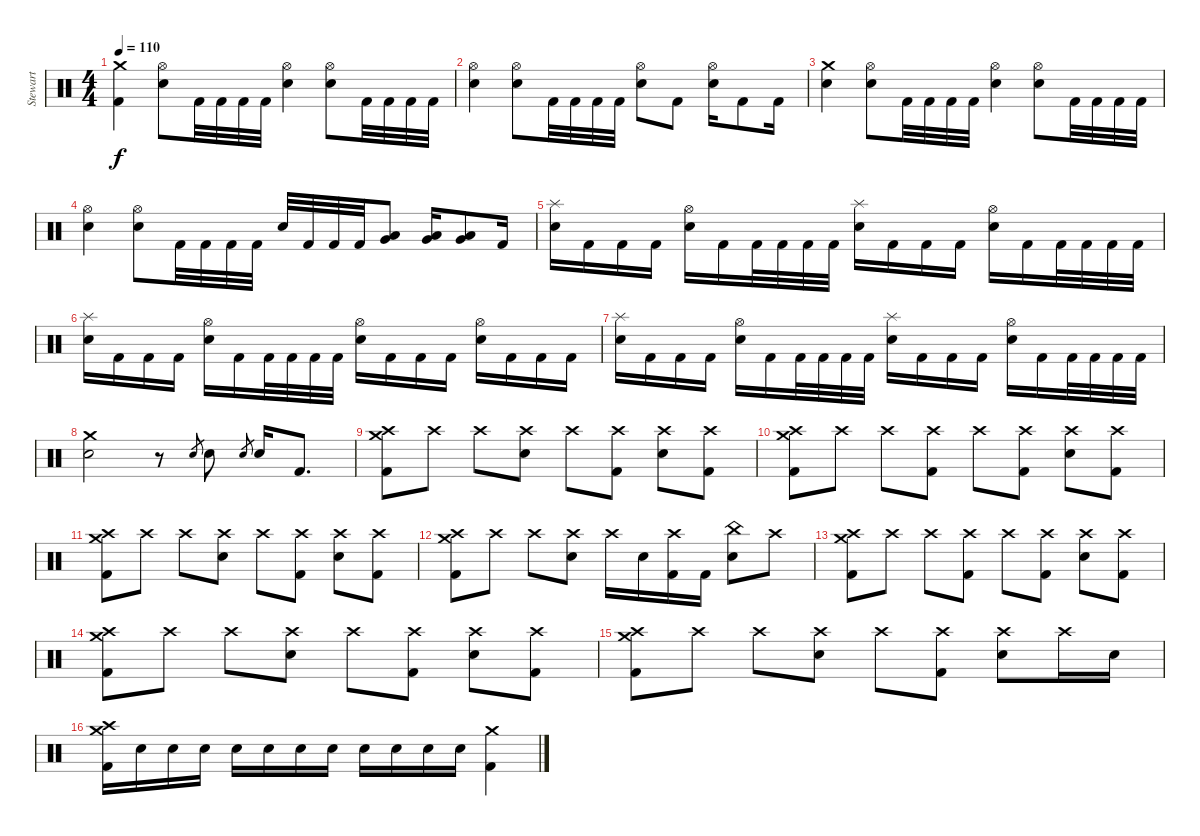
\track ("Stewart" "Stewart") {instrument percussion}
\staff {score}
\articulation defaults
\ts (4 4)
\tempo 110
\clef neutral
\ks c
("Crash medium (hit)" "Kick (hit) 2").4{dy f} ("Hi-Hat (open)" "Electric Snare (hit)").8 "Kick (hit) 2".32 "Kick (hit) 2".32 "Kick (hit) 2".32 "Kick (hit) 2".32 ("Hi-Hat (open)" "Electric Snare (hit)").4 ("Hi-Hat (open)" "Electric Snare (hit)").8 "Kick (hit) 2".32 "Kick (hit) 2".32 "Kick (hit) 2".32 "Kick (hit) 2".32 |
("Hi-Hat (open)" "Electric Snare (hit)").4 ("Hi-Hat (open)" "Electric Snare (hit)").8 "Kick (hit) 2".32 "Kick (hit) 2".32 "Kick (hit) 2".32 "Kick (hit) 2".32 ("Hi-Hat (open)" "Electric Snare (hit)").8 "Kick (hit) 2".8 ("Hi-Hat (open)" "Electric Snare (hit)").16 "Kick (hit) 2".8 "Kick (hit) 2".16 |
("Crash medium (hit)" "Electric Snare (hit)").4 ("Hi-Hat (open)" "Electric Snare (hit)").8 "Kick (hit) 2".32 "Kick (hit) 2".32 "Kick (hit) 2".32 "Kick (hit) 2".32 ("Hi-Hat (open)" "Electric Snare (hit)").4 ("Hi-Hat (open)" "Electric Snare (hit)").8 "Kick (hit) 2".32 "Kick (hit) 2".32 "Kick (hit) 2".32 "Kick (hit) 2".32 |
("Hi-Hat (open)" "Electric Snare (hit)").4 ("Hi-Hat (open)" "Electric Snare (hit)").8 "Kick (hit) 2".32 "Kick (hit) 2".32 "Kick (hit) 2".32 "Kick (hit) 2".32 "Electric Snare (hit)".32 "Kick (hit) 2".32 "Kick (hit) 2".32 "Kick (hit) 2".32 ("Low Tom (hit)" "Very Low Tom (hit)").8 ("Low Tom (hit)" "Very Low Tom (hit)").16 ("Low Tom (hit)" "Very Low Tom (hit)").8 "Kick (hit) 2".16 |
("Splash (hit)" "Electric Snare (hit)").16 "Kick (hit) 2".16 "Kick (hit) 2".16 "Kick (hit) 2".16 ("Hi-Hat (open)" "Electric Snare (hit)").16 "Kick (hit) 2".16 "Kick (hit) 2".32 "Kick (hit) 2".32 "Kick (hit) 2".32 "Kick (hit) 2".32 ("Splash (hit)" "Electric Snare (hit)").16 "Kick (hit) 2".16 "Kick (hit) 2".16 "Kick (hit) 2".16 ("Hi-Hat (open)" "Electric Snare (hit)").16 "Kick (hit) 2".16 "Kick (hit) 2".32 "Kick (hit) 2".32 "Kick (hit) 2".32 "Kick (hit) 2".32 |
("Splash (hit)" "Electric Snare (hit)").16 "Kick (hit) 2".16 "Kick (hit) 2".16 "Kick (hit) 2".16 ("Hi-Hat (open)" "Electric Snare (hit)").16 "Kick (hit) 2".16 "Kick (hit) 2".32 "Kick (hit) 2".32 "Kick (hit) 2".32 "Kick (hit) 2".32 ("Hi-Hat (open)" "Electric Snare (hit)").16 "Kick (hit) 2".16 "Kick (hit) 2".16 "Kick (hit) 2".16 ("Hi-Hat (open)" "Electric Snare (hit)").16 "Kick (hit) 2".16 "Kick (hit) 2".16 "Kick (hit) 2".16 |
("Splash (hit)" "Electric Snare (hit)").16 "Kick (hit) 2".16 "Kick (hit) 2".16 "Kick (hit) 2".16 ("Hi-Hat (open)" "Electric Snare (hit)").16 "Kick (hit) 2".16 "Kick (hit) 2".32 "Kick (hit) 2".32 "Kick (hit) 2".32 "Kick (hit) 2".32 ("Splash (hit)" "Electric Snare (hit)").16 "Kick (hit) 2".16 "Kick (hit) 2".16 "Kick (hit) 2".16 ("Hi-Hat (open)" "Electric Snare (hit)").16 "Kick (hit) 2".16 "Kick (hit) 2".32 "Kick (hit) 2".32 "Kick (hit) 2".32 "Kick (hit) 2".32 |
("Crash medium (hit)" "Electric Snare (hit)").2 r.8 "Electric Snare (hit)".8{gr} "Electric Snare (hit)".8 "Electric Snare (hit)".8{gr} "Electric Snare (hit)".16 "Kick (hit) 2".8{d} |
("Crash high (hit)" "Crash medium (hit)" "Kick (hit) 2").8 "Crash high (hit)".8 "Crash high (hit)".8 ("Crash high (hit)" "Electric Snare (hit)").8 "Crash high (hit)".8 ("Crash high (hit)" "Kick (hit) 2").8 ("Crash high (hit)" "Electric Snare (hit)").8 ("Crash high (hit)" "Kick (hit) 2").8 |
("Crash high (hit)" "Crash medium (hit)" "Kick (hit) 2").8 "Crash high (hit)".8 "Crash high (hit)".8 ("Crash high (hit)" "Kick (hit) 2").8 "Crash high (hit)".8 ("Crash high (hit)" "Kick (hit) 2").8 ("Crash high (hit)" "Electric Snare (hit)").8 ("Crash high (hit)" "Kick (hit) 2").8 |
("Crash high (hit)" "Crash medium (hit)" "Kick (hit) 2").8 "Crash high (hit)".8 "Crash high (hit)".8 ("Crash high (hit)" "Electric Snare (hit)").8 "Crash high (hit)".8 ("Crash high (hit)" "Kick (hit) 2").8 ("Crash high (hit)" "Electric Snare (hit)").8 ("Crash high (hit)" "Kick (hit) 2").8 |
("Crash high (hit)" "Crash medium (hit)" "Kick (hit) 2").8 "Crash high (hit)".8 "Crash high (hit)".8 ("Crash high (hit)" "Electric Snare (hit)").8 "Crash high (hit)".16 "Electric Snare (hit)".16 ("Crash high (hit)" "Kick (hit) 2").16 "Kick (hit) 2".16 ("China (hit)" "Electric Snare (hit)").8 "Crash high (hit)".8 |
("Crash high (hit)" "Crash medium (hit)" "Kick (hit) 2").8 "Crash high (hit)".8 "Crash high (hit)".8 ("Crash high (hit)" "Kick (hit) 2").8 "Crash high (hit)".8 ("Crash high (hit)" "Kick (hit) 2").8 ("Crash high (hit)" "Electric Snare (hit)").8 ("Crash high (hit)" "Kick (hit) 2").8 |
("Crash high (hit)" "Crash medium (hit)" "Kick (hit) 2").8 "Crash high (hit)".8 "Crash high (hit)".8 ("Crash high (hit)" "Electric Snare (hit)").8 "Crash high (hit)".8 ("Crash high (hit)" "Kick (hit) 2").8 ("Crash high (hit)" "Electric Snare (hit)").8 ("Crash high (hit)" "Kick (hit) 2").8 |
("Crash high (hit)" "Crash medium (hit)" "Kick (hit) 2").8 "Crash high (hit)".8 "Crash high (hit)".8 ("Crash high (hit)" "Electric Snare (hit)").8 "Crash high (hit)".8 ("Crash high (hit)" "Kick (hit) 2").8 ("Crash high (hit)" "Electric Snare (hit)").8 "Crash high (hit)".16 "Electric Snare (hit)".16 |
("Crash high (hit)" "Crash medium (hit)" "Kick (hit) 2").16 "Electric Snare (hit)".16 "Electric Snare (hit)".16 "Electric Snare (hit)".16 "Electric Snare (hit)".16 "Electric Snare (hit)".16 "Electric Snare (hit)".16 "Electric Snare (hit)".16 "Electric Snare (hit)".16 "Electric Snare (hit)".16 "Electric Snare (hit)".16 "Electric Snare (hit)".16 ("Crash medium (hit)" "Kick (hit) 2").4
